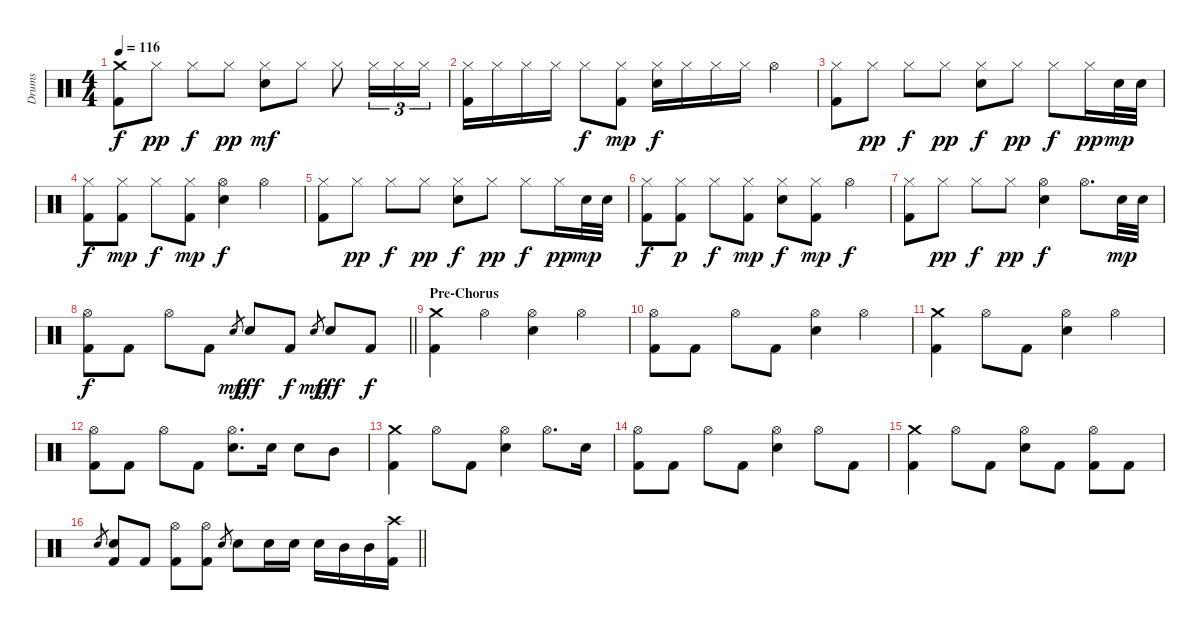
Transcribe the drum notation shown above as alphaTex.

\track ("Drums" "Drums") {instrument percussion}
\staff {score}
\articulation defaults
\ts (4 4)
\tempo 116
\clef neutral
\ks c
("Crash medium (hit)" "Kick (hit) 2").8{dy f} "Hi-Hat (closed)".8{dy pp} "Hi-Hat (closed)".8{dy f} "Hi-Hat (closed)".8{dy pp} ("Hi-Hat (closed)" "Electric Snare (hit)").8{dy mf} "Hi-Hat (closed)".8 "Hi-Hat (closed)".8 "Hi-Hat (closed)".16{tu (3 2)} "Hi-Hat (closed)".16{tu (3 2)} "Hi-Hat (closed)".16{tu (3 2)} |
("Hi-Hat (closed)" "Kick (hit) 2").16 "Hi-Hat (closed)".16 "Hi-Hat (closed)".16 "Hi-Hat (closed)".16 "Hi-Hat (closed)".8{dy f} ("Hi-Hat (closed)" "Kick (hit) 2").8{dy mp} ("Hi-Hat (closed)" "Electric Snare (hit)").16{dy f} "Hi-Hat (closed)".16 "Hi-Hat (closed)".16 "Hi-Hat (closed)".16 "Hi-Hat (open)".4 |
("Hi-Hat (closed)" "Kick (hit) 2").8 "Hi-Hat (closed)".8{dy pp} "Hi-Hat (closed)".8{dy f} "Hi-Hat (closed)".8{dy pp} ("Hi-Hat (closed)" "Electric Snare (hit)").8{dy f} "Hi-Hat (closed)".8{dy pp} "Hi-Hat (closed)".8{dy f} "Hi-Hat (closed)".16{dy pp} "Electric Snare (hit)".32{dy mp} "Electric Snare (hit)".32 |
("Hi-Hat (closed)" "Kick (hit) 2").8{dy f} ("Hi-Hat (closed)" "Kick (hit) 2").8{dy mp} "Hi-Hat (closed)".8{dy f} ("Hi-Hat (closed)" "Kick (hit) 2").8{dy mp} ("Hi-Hat (open)" "Electric Snare (hit)").4{dy f} "Hi-Hat (open)".4 |
("Hi-Hat (closed)" "Kick (hit) 2").8 "Hi-Hat (closed)".8{dy pp} "Hi-Hat (closed)".8{dy f} "Hi-Hat (closed)".8{dy pp} ("Hi-Hat (closed)" "Electric Snare (hit)").8{dy f} "Hi-Hat (closed)".8{dy pp} "Hi-Hat (closed)".8{dy f} "Hi-Hat (closed)".16{dy pp} "Electric Snare (hit)".32{dy mp} "Electric Snare (hit)".32 |
("Hi-Hat (closed)" "Kick (hit) 2").8{dy f} ("Hi-Hat (closed)" "Kick (hit) 2").8{dy p} "Hi-Hat (closed)".8{dy f} ("Hi-Hat (closed)" "Kick (hit) 2").8{dy mp} ("Hi-Hat (closed)" "Electric Snare (hit)").8{dy f} ("Hi-Hat (closed)" "Kick (hit) 2").8{dy mp} "Hi-Hat (open)".4{dy f} |
("Hi-Hat (closed)" "Kick (hit) 2").8 "Hi-Hat (closed)".8{dy pp} "Hi-Hat (closed)".8{dy f} "Hi-Hat (closed)".8{dy pp} ("Hi-Hat (open)" "Electric Snare (hit)").4{dy f} "Hi-Hat (open)".8{d} "Electric Snare (hit)".32{dy mp} "Electric Snare (hit)".32 |
\barLineRight lightlight
("Hi-Hat (open)" "Kick (hit) 2").8{dy f} "Kick (hit) 2".8 "Hi-Hat (open)".8 "Kick (hit) 2".8 "Electric Snare (hit)".8{gr dy mp} "Electric Snare (hit)".8{dy fff} "Kick (hit) 2".8{dy f} "Electric Snare (hit)".8{gr dy mp} "Electric Snare (hit)".8{dy fff} "Kick (hit) 2".8{dy f} |
\section ("" "Pre-Chorus")
("Crash medium (hit)" "Kick (hit) 2").4 "Hi-Hat (open)".4 ("Hi-Hat (open)" "Electric Snare (hit)").4 "Hi-Hat (open)".4 |
("Hi-Hat (open)" "Kick (hit) 2").8 "Kick (hit) 2".8 "Hi-Hat (open)".8 "Kick (hit) 2".8 ("Hi-Hat (open)" "Electric Snare (hit)").4 "Hi-Hat (open)".4 |
("Crash medium (hit)" "Kick (hit) 2").4 "Hi-Hat (open)".8 "Kick (hit) 2".8 ("Hi-Hat (open)" "Electric Snare (hit)").4 "Hi-Hat (open)".4 |
("Hi-Hat (open)" "Kick (hit) 2").8 "Kick (hit) 2".8 "Hi-Hat (open)".8 "Kick (hit) 2".8 ("Hi-Hat (open)" "Electric Snare (hit)").8{d} "Electric Snare (hit)".16 "Electric Snare (hit)".8 "Mid Tom (hit)".8 |
("Crash medium (hit)" "Kick (hit) 2").4 "Hi-Hat (open)".8 "Kick (hit) 2".8 ("Hi-Hat (open)" "Electric Snare (hit)").4 "Hi-Hat (open)".8{d} "Electric Snare (hit)".16 |
("Hi-Hat (open)" "Kick (hit) 2").8 "Kick (hit) 2".8 "Hi-Hat (open)".8 "Kick (hit) 2".8 ("Hi-Hat (open)" "Electric Snare (hit)").4 "Hi-Hat (open)".8 "Kick (hit) 2".8 |
("Crash medium (hit)" "Kick (hit) 2").4 "Hi-Hat (open)".8 "Kick (hit) 2".8 ("Hi-Hat (open)" "Electric Snare (hit)").8 "Kick (hit) 2".8 ("Hi-Hat (open)" "Kick (hit) 2").8 "Kick (hit) 2".8 |
\barLineRight lightlight "Electric Snare (hit)".8{gr}
("Electric Snare (hit)" "Kick (hit) 2").8 "Kick (hit) 2".8 ("Hi-Hat (open)" "Kick (hit) 2").8 ("Hi-Hat (open)" "Kick (hit) 2").8 "Electric Snare (hit)".8{gr} "Electric Snare (hit)".8 "Electric Snare (hit)".16 "Electric Snare (hit)".16 "Electric Snare (hit)".16 "Mid Tom (hit)".16 "Mid Tom (hit)".16 ("Crash high (hit)" "Kick (hit) 2").16
